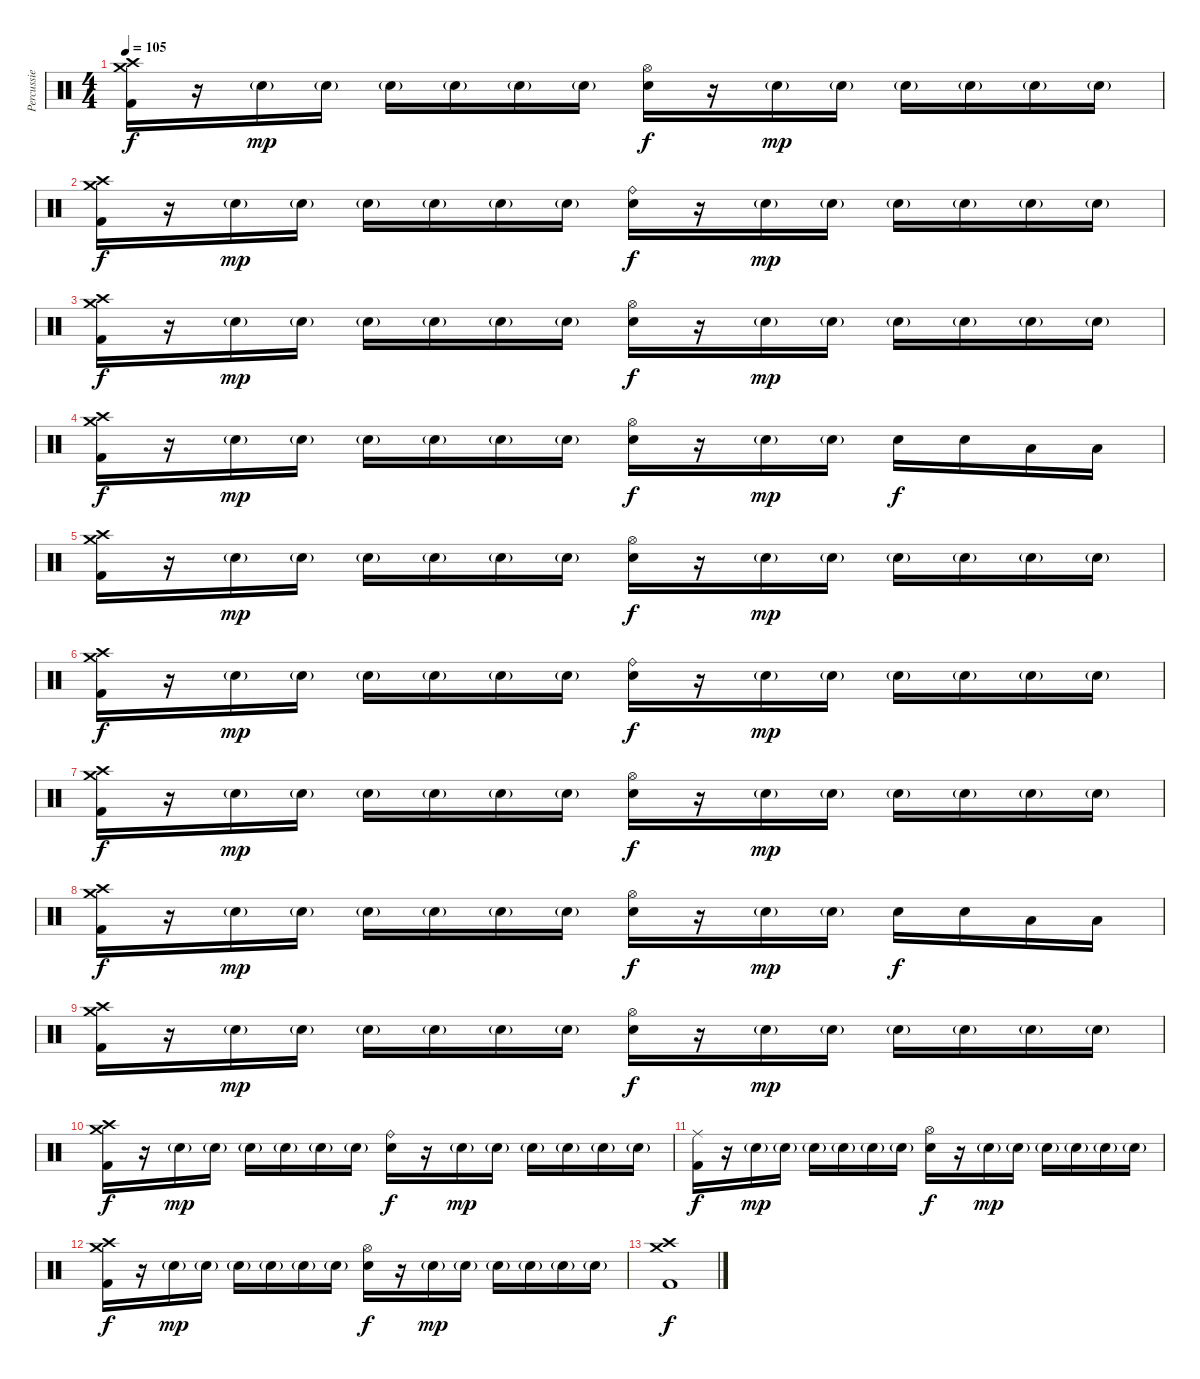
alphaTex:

\track ("Percussie" "Percussie") {instrument percussion}
\staff {score}
\articulation defaults
\ts (4 4)
\tempo 105
\clef neutral
\ks c
("Crash medium (hit)" "Crash high (hit)" "Kick (hit) 2").16{dy f} r.16 "Electric Snare (hit)"{g}.16{dy mp} "Electric Snare (hit)"{g}.16 "Electric Snare (hit)"{g}.16 "Electric Snare (hit)"{g}.16 "Electric Snare (hit)"{g}.16 "Electric Snare (hit)"{g}.16 ("Hi-Hat (open)" "Electric Snare (hit)").16{dy f} r.16 "Electric Snare (hit)"{g}.16{dy mp} "Electric Snare (hit)"{g}.16 "Electric Snare (hit)"{g}.16 "Electric Snare (hit)"{g}.16 "Electric Snare (hit)"{g}.16 "Electric Snare (hit)"{g}.16 |
("Crash medium (hit)" "Crash high (hit)" "Kick (hit) 2").16{dy f} r.16 "Electric Snare (hit)"{g}.16{dy mp} "Electric Snare (hit)"{g}.16 "Electric Snare (hit)"{g}.16 "Electric Snare (hit)"{g}.16 "Electric Snare (hit)"{g}.16 "Electric Snare (hit)"{g}.16 ("Ride (bell)" "Electric Snare (hit)").16{dy f} r.16 "Electric Snare (hit)"{g}.16{dy mp} "Electric Snare (hit)"{g}.16 "Electric Snare (hit)"{g}.16 "Electric Snare (hit)"{g}.16 "Electric Snare (hit)"{g}.16 "Electric Snare (hit)"{g}.16 |
("Crash medium (hit)" "Crash high (hit)" "Kick (hit) 2").16{dy f} r.16 "Electric Snare (hit)"{g}.16{dy mp} "Electric Snare (hit)"{g}.16 "Electric Snare (hit)"{g}.16 "Electric Snare (hit)"{g}.16 "Electric Snare (hit)"{g}.16 "Electric Snare (hit)"{g}.16 ("Hi-Hat (open)" "Electric Snare (hit)").16{dy f} r.16 "Electric Snare (hit)"{g}.16{dy mp} "Electric Snare (hit)"{g}.16 "Electric Snare (hit)"{g}.16 "Electric Snare (hit)"{g}.16 "Electric Snare (hit)"{g}.16 "Electric Snare (hit)"{g}.16 |
("Crash medium (hit)" "Crash high (hit)" "Kick (hit) 2").16{dy f} r.16 "Electric Snare (hit)"{g}.16{dy mp} "Electric Snare (hit)"{g}.16 "Electric Snare (hit)"{g}.16 "Electric Snare (hit)"{g}.16 "Electric Snare (hit)"{g}.16 "Electric Snare (hit)"{g}.16 ("Hi-Hat (open)" "Electric Snare (hit)").16{dy f} r.16 "Electric Snare (hit)"{g}.16{dy mp} "Electric Snare (hit)"{g}.16 "Electric Snare (hit)".16{dy f} "Electric Snare (hit)".16 "Low Tom (hit)".16 "Low Tom (hit)".16 |
("Crash medium (hit)" "Crash high (hit)" "Kick (hit) 2").16 r.16 "Electric Snare (hit)"{g}.16{dy mp} "Electric Snare (hit)"{g}.16 "Electric Snare (hit)"{g}.16 "Electric Snare (hit)"{g}.16 "Electric Snare (hit)"{g}.16 "Electric Snare (hit)"{g}.16 ("Hi-Hat (open)" "Electric Snare (hit)").16{dy f} r.16 "Electric Snare (hit)"{g}.16{dy mp} "Electric Snare (hit)"{g}.16 "Electric Snare (hit)"{g}.16 "Electric Snare (hit)"{g}.16 "Electric Snare (hit)"{g}.16 "Electric Snare (hit)"{g}.16 |
("Crash medium (hit)" "Crash high (hit)" "Kick (hit) 2").16{dy f} r.16 "Electric Snare (hit)"{g}.16{dy mp} "Electric Snare (hit)"{g}.16 "Electric Snare (hit)"{g}.16 "Electric Snare (hit)"{g}.16 "Electric Snare (hit)"{g}.16 "Electric Snare (hit)"{g}.16 ("Ride (bell)" "Electric Snare (hit)").16{dy f} r.16 "Electric Snare (hit)"{g}.16{dy mp} "Electric Snare (hit)"{g}.16 "Electric Snare (hit)"{g}.16 "Electric Snare (hit)"{g}.16 "Electric Snare (hit)"{g}.16 "Electric Snare (hit)"{g}.16 |
("Crash medium (hit)" "Crash high (hit)" "Kick (hit) 2").16{dy f} r.16 "Electric Snare (hit)"{g}.16{dy mp} "Electric Snare (hit)"{g}.16 "Electric Snare (hit)"{g}.16 "Electric Snare (hit)"{g}.16 "Electric Snare (hit)"{g}.16 "Electric Snare (hit)"{g}.16 ("Hi-Hat (open)" "Electric Snare (hit)").16{dy f} r.16 "Electric Snare (hit)"{g}.16{dy mp} "Electric Snare (hit)"{g}.16 "Electric Snare (hit)"{g}.16 "Electric Snare (hit)"{g}.16 "Electric Snare (hit)"{g}.16 "Electric Snare (hit)"{g}.16 |
("Crash medium (hit)" "Crash high (hit)" "Kick (hit) 2").16{dy f} r.16 "Electric Snare (hit)"{g}.16{dy mp} "Electric Snare (hit)"{g}.16 "Electric Snare (hit)"{g}.16 "Electric Snare (hit)"{g}.16 "Electric Snare (hit)"{g}.16 "Electric Snare (hit)"{g}.16 ("Hi-Hat (open)" "Electric Snare (hit)").16{dy f} r.16 "Electric Snare (hit)"{g}.16{dy mp} "Electric Snare (hit)"{g}.16 "Electric Snare (hit)".16{dy f} "Electric Snare (hit)".16 "Low Tom (hit)".16 "Low Tom (hit)".16 |
("Crash medium (hit)" "Crash high (hit)" "Kick (hit) 2").16 r.16 "Electric Snare (hit)"{g}.16{dy mp} "Electric Snare (hit)"{g}.16 "Electric Snare (hit)"{g}.16 "Electric Snare (hit)"{g}.16 "Electric Snare (hit)"{g}.16 "Electric Snare (hit)"{g}.16 ("Hi-Hat (open)" "Electric Snare (hit)").16{dy f} r.16 "Electric Snare (hit)"{g}.16{dy mp} "Electric Snare (hit)"{g}.16 "Electric Snare (hit)"{g}.16 "Electric Snare (hit)"{g}.16 "Electric Snare (hit)"{g}.16 "Electric Snare (hit)"{g}.16 |
("Crash medium (hit)" "Crash high (hit)" "Kick (hit) 2").16{dy f} r.16 "Electric Snare (hit)"{g}.16{dy mp} "Electric Snare (hit)"{g}.16 "Electric Snare (hit)"{g}.16 "Electric Snare (hit)"{g}.16 "Electric Snare (hit)"{g}.16 "Electric Snare (hit)"{g}.16 ("Ride (bell)" "Electric Snare (hit)").16{dy f} r.16 "Electric Snare (hit)"{g}.16{dy mp} "Electric Snare (hit)"{g}.16 "Electric Snare (hit)"{g}.16 "Electric Snare (hit)"{g}.16 "Electric Snare (hit)"{g}.16 "Electric Snare (hit)"{g}.16 |
("Ride (middle)" "Kick (hit) 2").16{dy f} r.16 "Electric Snare (hit)"{g}.16{dy mp} "Electric Snare (hit)"{g}.16 "Electric Snare (hit)"{g}.16 "Electric Snare (hit)"{g}.16 "Electric Snare (hit)"{g}.16 "Electric Snare (hit)"{g}.16 ("Hi-Hat (open)" "Electric Snare (hit)").16{dy f} r.16 "Electric Snare (hit)"{g}.16{dy mp} "Electric Snare (hit)"{g}.16 "Electric Snare (hit)"{g}.16 "Electric Snare (hit)"{g}.16 "Electric Snare (hit)"{g}.16 "Electric Snare (hit)"{g}.16 |
("Crash medium (hit)" "Crash high (hit)" "Kick (hit) 2").16{dy f} r.16 "Electric Snare (hit)"{g}.16{dy mp} "Electric Snare (hit)"{g}.16 "Electric Snare (hit)"{g}.16 "Electric Snare (hit)"{g}.16 "Electric Snare (hit)"{g}.16 "Electric Snare (hit)"{g}.16 ("Hi-Hat (open)" "Electric Snare (hit)").16{dy f} r.16 "Electric Snare (hit)"{g}.16{dy mp} "Electric Snare (hit)"{g}.16 "Electric Snare (hit)"{g}.16 "Electric Snare (hit)"{g}.16 "Electric Snare (hit)"{g}.16 "Electric Snare (hit)"{g}.16 |
("Crash medium (hit)" "Crash high (hit)" "Kick (hit) 2").1{dy f}
